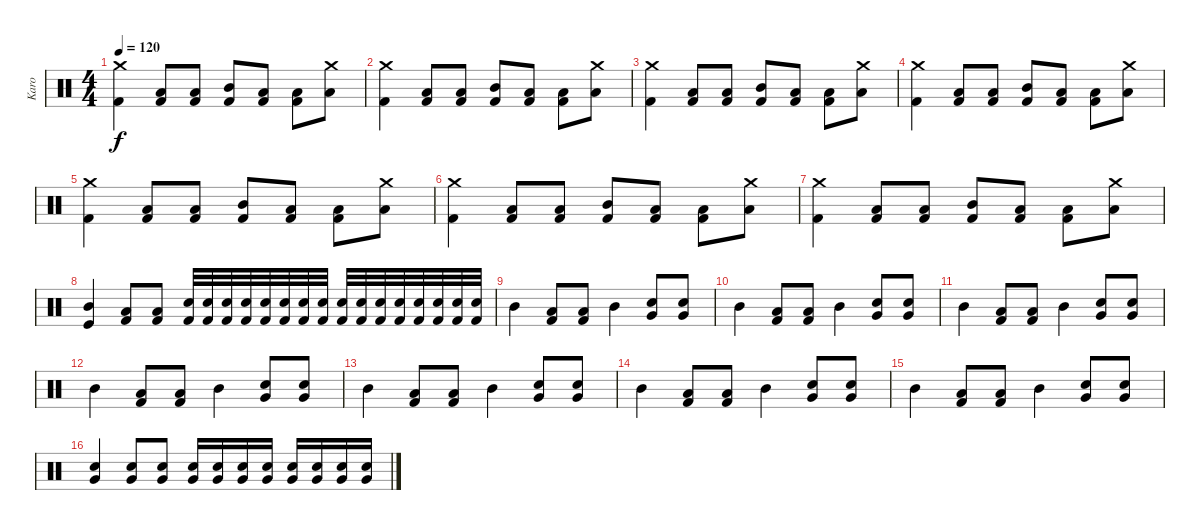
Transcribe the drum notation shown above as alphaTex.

\track ("Karo" "Karo") {instrument percussion}
\staff {score}
\articulation defaults
\ts (4 4)
\tempo 120
\clef neutral
\ks c
("Crash medium (hit)" "Kick (hit) 2").4{dy f} ("Kick (hit) 2" "Low Tom (hit)").8 ("Kick (hit) 2" "Low Tom (hit)").8 ("Kick (hit) 2" "Mid Tom (hit)").8 ("Kick (hit) 2" "Low Tom (hit)").8 ("Kick (hit) 2" "Low Tom (hit)").8 ("Crash medium (hit)" "Low Tom (hit)").8 |
("Crash medium (hit)" "Kick (hit) 2").4 ("Kick (hit) 2" "Low Tom (hit)").8 ("Kick (hit) 2" "Low Tom (hit)").8 ("Kick (hit) 2" "Mid Tom (hit)").8 ("Kick (hit) 2" "Low Tom (hit)").8 ("Kick (hit) 2" "Low Tom (hit)").8 ("Crash medium (hit)" "Low Tom (hit)").8 |
("Crash medium (hit)" "Kick (hit) 2").4 ("Kick (hit) 2" "Low Tom (hit)").8 ("Kick (hit) 2" "Low Tom (hit)").8 ("Kick (hit) 2" "Mid Tom (hit)").8 ("Kick (hit) 2" "Low Tom (hit)").8 ("Kick (hit) 2" "Low Tom (hit)").8 ("Crash medium (hit)" "Low Tom (hit)").8 |
("Crash medium (hit)" "Kick (hit) 2").4 ("Kick (hit) 2" "Low Tom (hit)").8 ("Kick (hit) 2" "Low Tom (hit)").8 ("Kick (hit) 2" "Mid Tom (hit)").8 ("Kick (hit) 2" "Low Tom (hit)").8 ("Kick (hit) 2" "Low Tom (hit)").8 ("Crash medium (hit)" "Low Tom (hit)").8 |
("Crash medium (hit)" "Kick (hit) 2").4 ("Kick (hit) 2" "Low Tom (hit)").8 ("Kick (hit) 2" "Low Tom (hit)").8 ("Kick (hit) 2" "Mid Tom (hit)").8 ("Kick (hit) 2" "Low Tom (hit)").8 ("Kick (hit) 2" "Low Tom (hit)").8 ("Crash medium (hit)" "Low Tom (hit)").8 |
("Crash medium (hit)" "Kick (hit) 2").4 ("Kick (hit) 2" "Low Tom (hit)").8 ("Kick (hit) 2" "Low Tom (hit)").8 ("Kick (hit) 2" "Mid Tom (hit)").8 ("Kick (hit) 2" "Low Tom (hit)").8 ("Kick (hit) 2" "Low Tom (hit)").8 ("Crash medium (hit)" "Low Tom (hit)").8 |
("Crash medium (hit)" "Kick (hit) 2").4 ("Kick (hit) 2" "Low Tom (hit)").8 ("Kick (hit) 2" "Low Tom (hit)").8 ("Kick (hit) 2" "Mid Tom (hit)").8 ("Kick (hit) 2" "Low Tom (hit)").8 ("Kick (hit) 2" "Low Tom (hit)").8 ("Crash medium (hit)" "Low Tom (hit)").8 |
("Kick (hit)" "Mid Tom (hit)").4 ("Low Tom (hit)" "Kick (hit) 2").8 ("Low Tom (hit)" "Kick (hit) 2").8 ("Kick (hit) 2" "Electric Snare (hit)").32 ("Kick (hit) 2" "Electric Snare (hit)").32 ("Kick (hit) 2" "Electric Snare (hit)").32 ("Kick (hit) 2" "Electric Snare (hit)").32 ("Kick (hit) 2" "Electric Snare (hit)").32 ("Kick (hit) 2" "Electric Snare (hit)").32 ("Kick (hit) 2" "Electric Snare (hit)").32 ("Kick (hit) 2" "Electric Snare (hit)").32 ("Kick (hit) 2" "Electric Snare (hit)").32 ("Kick (hit) 2" "Electric Snare (hit)").32 ("Kick (hit) 2" "Electric Snare (hit)").32 ("Kick (hit) 2" "Electric Snare (hit)").32 ("Kick (hit) 2" "Electric Snare (hit)").32 ("Kick (hit) 2" "Electric Snare (hit)").32 ("Kick (hit) 2" "Electric Snare (hit)").32 ("Kick (hit) 2" "Electric Snare (hit)").32 |
"Mid Tom (hit)".4 ("Kick (hit) 2" "Low Tom (hit)").8 ("Kick (hit) 2" "Low Tom (hit)").8 "Mid Tom (hit)".4 ("Electric Snare (hit)" "Very Low Tom (hit)").8 ("Electric Snare (hit)" "Very Low Tom (hit)").8 |
"Mid Tom (hit)".4 ("Kick (hit) 2" "Low Tom (hit)").8 ("Kick (hit) 2" "Low Tom (hit)").8 "Mid Tom (hit)".4 ("Electric Snare (hit)" "Very Low Tom (hit)").8 ("Electric Snare (hit)" "Very Low Tom (hit)").8 |
"Mid Tom (hit)".4 ("Kick (hit) 2" "Low Tom (hit)").8 ("Kick (hit) 2" "Low Tom (hit)").8 "Mid Tom (hit)".4 ("Very Low Tom (hit)" "Electric Snare (hit)").8 ("Very Low Tom (hit)" "Electric Snare (hit)").8 |
"Mid Tom (hit)".4 ("Kick (hit) 2" "Low Tom (hit)").8 ("Kick (hit) 2" "Low Tom (hit)").8 "Mid Tom (hit)".4 ("Electric Snare (hit)" "Very Low Tom (hit)").8 ("Electric Snare (hit)" "Very Low Tom (hit)").8 |
"Mid Tom (hit)".4 ("Kick (hit) 2" "Low Tom (hit)").8 ("Kick (hit) 2" "Low Tom (hit)").8 "Mid Tom (hit)".4 ("Electric Snare (hit)" "Very Low Tom (hit)").8 ("Electric Snare (hit)" "Very Low Tom (hit)").8 |
"Mid Tom (hit)".4 ("Kick (hit) 2" "Low Tom (hit)").8 ("Kick (hit) 2" "Low Tom (hit)").8 "Mid Tom (hit)".4 ("Very Low Tom (hit)" "Electric Snare (hit)").8 ("Very Low Tom (hit)" "Electric Snare (hit)").8 |
"Mid Tom (hit)".4 ("Kick (hit) 2" "Low Tom (hit)").8 ("Kick (hit) 2" "Low Tom (hit)").8 "Mid Tom (hit)".4 ("Electric Snare (hit)" "Very Low Tom (hit)").8 ("Electric Snare (hit)" "Very Low Tom (hit)").8 |
("Very Low Tom (hit)" "Electric Snare (hit)").4 ("Very Low Tom (hit)" "Electric Snare (hit)").8 ("Very Low Tom (hit)" "Electric Snare (hit)").8 ("Very Low Tom (hit)" "Electric Snare (hit)").16 ("Very Low Tom (hit)" "Electric Snare (hit)").16 ("Very Low Tom (hit)" "Electric Snare (hit)").16 ("Very Low Tom (hit)" "Electric Snare (hit)").16 ("Very Low Tom (hit)" "Electric Snare (hit)").16 ("Very Low Tom (hit)" "Electric Snare (hit)").16 ("Very Low Tom (hit)" "Electric Snare (hit)").16 ("Very Low Tom (hit)" "Electric Snare (hit)").16
